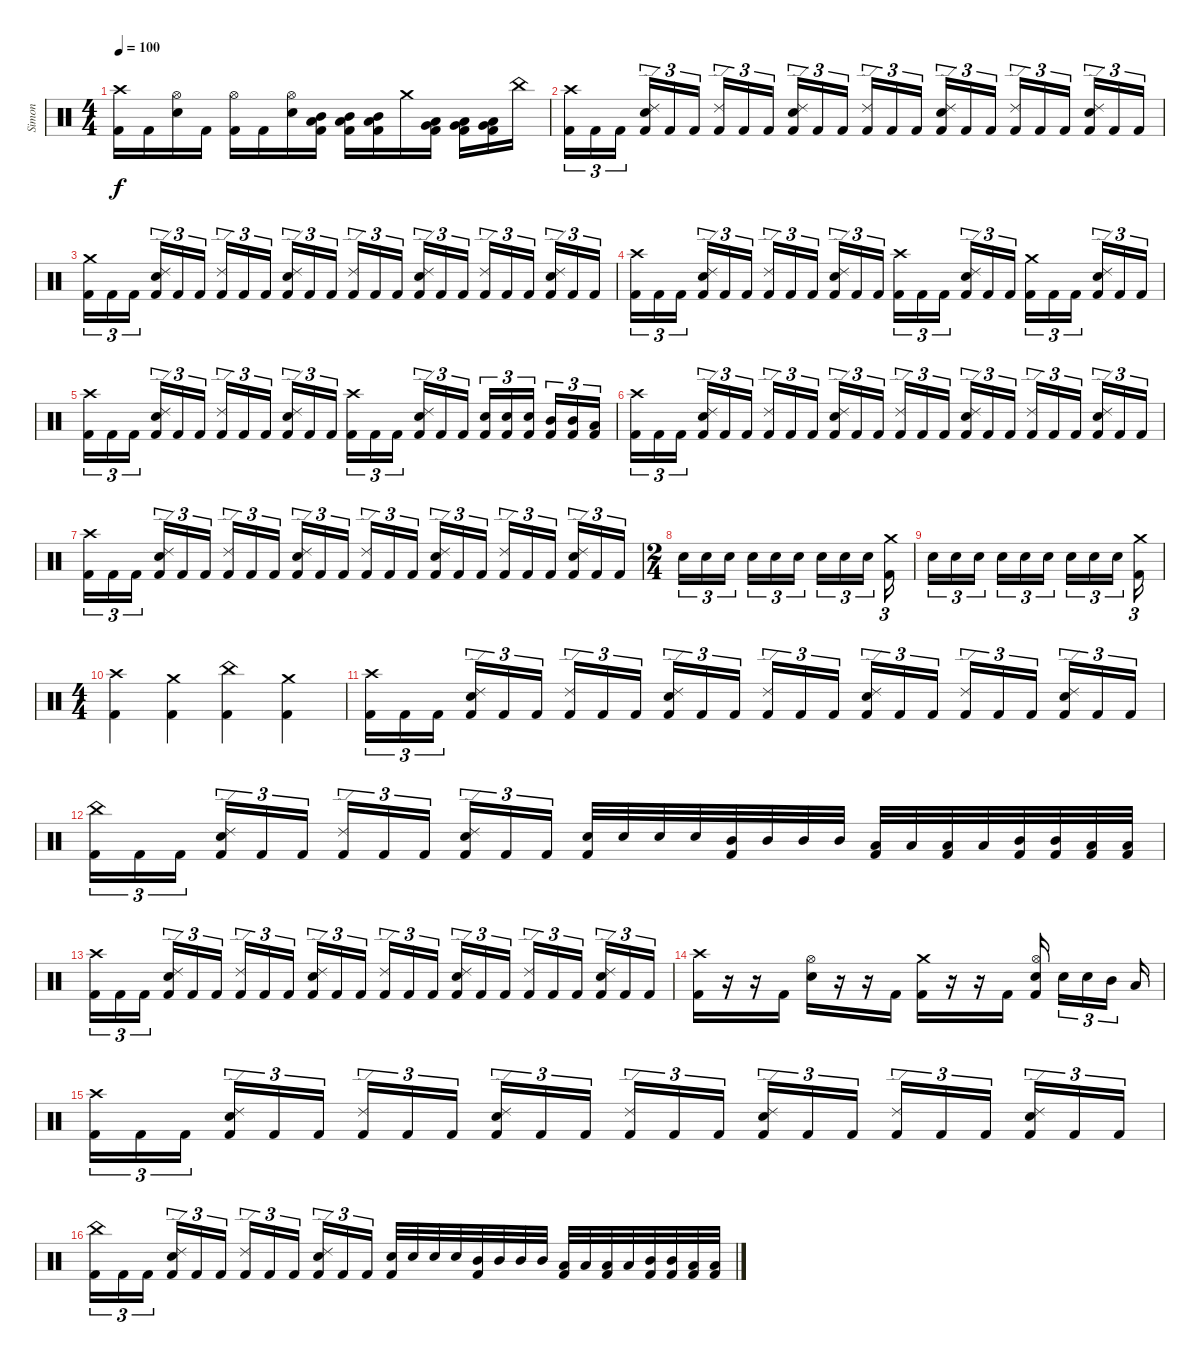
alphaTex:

\track ("Simon" "Simon") {instrument percussion}
\staff {score}
\articulation defaults
\ts (4 4)
\tempo 100
\clef neutral
\ks c
("Crash high (hit)" "Kick (hit) 2").16{dy f} "Kick (hit) 2".16 ("Hi-Hat (open)" "Electric Snare (hit)").16 "Kick (hit) 2".16 ("Hi-Hat (open)" "Kick (hit) 2").16 "Kick (hit) 2".16 ("Hi-Hat (open)" "Electric Snare (hit)").16 ("Low Tom (hit)" "Mid Tom (hit)" "Kick (hit) 2").16 ("Low Tom (hit)" "Mid Tom (hit)" "Kick (hit) 2").16 ("Low Tom (hit)" "Mid Tom (hit)" "Kick (hit) 2").16 "Crash medium (hit)".16 ("Very Low Tom (hit)" "Low Tom (hit)" "Kick (hit) 2").16 ("Very Low Tom (hit)" "Low Tom (hit)" "Kick (hit) 2").16 ("Very Low Tom (hit)" "Low Tom (hit)" "Kick (hit) 2").16 "China (hit)".16 |
("Crash high (hit)" "Kick (hit) 2").16{tu (3 2)} "Kick (hit) 2".16{tu (3 2)} "Kick (hit) 2".16{tu (3 2) beam splitsecondary} ("Ride (edge) 2" "Electric Snare (hit)" "Kick (hit) 2").16{tu (3 2)} "Kick (hit) 2".16{tu (3 2)} "Kick (hit) 2".16{tu (3 2)} ("Ride (edge) 2" "Kick (hit) 2").16{tu (3 2)} "Kick (hit) 2".16{tu (3 2)} "Kick (hit) 2".16{tu (3 2) beam splitsecondary} ("Ride (edge) 2" "Electric Snare (hit)" "Kick (hit) 2").16{tu (3 2)} "Kick (hit) 2".16{tu (3 2)} "Kick (hit) 2".16{tu (3 2)} ("Ride (edge) 2" "Kick (hit) 2").16{tu (3 2)} "Kick (hit) 2".16{tu (3 2)} "Kick (hit) 2".16{tu (3 2) beam splitsecondary} ("Ride (edge) 2" "Electric Snare (hit)" "Kick (hit) 2").16{tu (3 2)} "Kick (hit) 2".16{tu (3 2)} "Kick (hit) 2".16{tu (3 2)} ("Ride (edge) 2" "Kick (hit) 2").16{tu (3 2)} "Kick (hit) 2".16{tu (3 2)} "Kick (hit) 2".16{tu (3 2) beam splitsecondary} ("Ride (edge) 2" "Electric Snare (hit)" "Kick (hit) 2").16{tu (3 2)} "Kick (hit) 2".16{tu (3 2)} "Kick (hit) 2".16{tu (3 2)} |
("Crash medium (hit)" "Kick (hit) 2").16{tu (3 2)} "Kick (hit) 2".16{tu (3 2)} "Kick (hit) 2".16{tu (3 2) beam splitsecondary} ("Ride (edge) 2" "Electric Snare (hit)" "Kick (hit) 2").16{tu (3 2)} "Kick (hit) 2".16{tu (3 2)} "Kick (hit) 2".16{tu (3 2)} ("Ride (edge) 2" "Kick (hit) 2").16{tu (3 2)} "Kick (hit) 2".16{tu (3 2)} "Kick (hit) 2".16{tu (3 2) beam splitsecondary} ("Ride (edge) 2" "Electric Snare (hit)" "Kick (hit) 2").16{tu (3 2)} "Kick (hit) 2".16{tu (3 2)} "Kick (hit) 2".16{tu (3 2)} ("Ride (edge) 2" "Kick (hit) 2").16{tu (3 2)} "Kick (hit) 2".16{tu (3 2)} "Kick (hit) 2".16{tu (3 2) beam splitsecondary} ("Ride (edge) 2" "Electric Snare (hit)" "Kick (hit) 2").16{tu (3 2)} "Kick (hit) 2".16{tu (3 2)} "Kick (hit) 2".16{tu (3 2)} ("Ride (edge) 2" "Kick (hit) 2").16{tu (3 2)} "Kick (hit) 2".16{tu (3 2)} "Kick (hit) 2".16{tu (3 2) beam splitsecondary} ("Ride (edge) 2" "Electric Snare (hit)" "Kick (hit) 2").16{tu (3 2)} "Kick (hit) 2".16{tu (3 2)} "Kick (hit) 2".16{tu (3 2)} |
("Crash high (hit)" "Kick (hit) 2").16{tu (3 2)} "Kick (hit) 2".16{tu (3 2)} "Kick (hit) 2".16{tu (3 2) beam splitsecondary} ("Ride (edge) 2" "Electric Snare (hit)" "Kick (hit) 2").16{tu (3 2)} "Kick (hit) 2".16{tu (3 2)} "Kick (hit) 2".16{tu (3 2)} ("Ride (edge) 2" "Kick (hit) 2").16{tu (3 2)} "Kick (hit) 2".16{tu (3 2)} "Kick (hit) 2".16{tu (3 2) beam splitsecondary} ("Ride (edge) 2" "Electric Snare (hit)" "Kick (hit) 2").16{tu (3 2)} "Kick (hit) 2".16{tu (3 2)} "Kick (hit) 2".16{tu (3 2)} ("Crash high (hit)" "Kick (hit) 2").16{tu (3 2)} "Kick (hit) 2".16{tu (3 2)} "Kick (hit) 2".16{tu (3 2) beam splitsecondary} ("Ride (edge) 2" "Electric Snare (hit)" "Kick (hit) 2").16{tu (3 2)} "Kick (hit) 2".16{tu (3 2)} "Kick (hit) 2".16{tu (3 2)} ("Crash medium (hit)" "Kick (hit) 2").16{tu (3 2)} "Kick (hit) 2".16{tu (3 2)} "Kick (hit) 2".16{tu (3 2) beam splitsecondary} ("Ride (edge) 2" "Electric Snare (hit)" "Kick (hit) 2").16{tu (3 2)} "Kick (hit) 2".16{tu (3 2)} "Kick (hit) 2".16{tu (3 2)} |
("Crash high (hit)" "Kick (hit) 2").16{tu (3 2)} "Kick (hit) 2".16{tu (3 2)} "Kick (hit) 2".16{tu (3 2) beam splitsecondary} ("Ride (edge) 2" "Electric Snare (hit)" "Kick (hit) 2").16{tu (3 2)} "Kick (hit) 2".16{tu (3 2)} "Kick (hit) 2".16{tu (3 2)} ("Ride (edge) 2" "Kick (hit) 2").16{tu (3 2)} "Kick (hit) 2".16{tu (3 2)} "Kick (hit) 2".16{tu (3 2) beam splitsecondary} ("Ride (edge) 2" "Electric Snare (hit)" "Kick (hit) 2").16{tu (3 2)} "Kick (hit) 2".16{tu (3 2)} "Kick (hit) 2".16{tu (3 2)} ("Crash high (hit)" "Kick (hit) 2").16{tu (3 2)} "Kick (hit) 2".16{tu (3 2)} "Kick (hit) 2".16{tu (3 2) beam splitsecondary} ("Ride (edge) 2" "Electric Snare (hit)" "Kick (hit) 2").16{tu (3 2)} "Kick (hit) 2".16{tu (3 2)} "Kick (hit) 2".16{tu (3 2)} ("Electric Snare (hit)" "Kick (hit) 2").16{tu (3 2)} ("Electric Snare (hit)" "Kick (hit) 2").16{tu (3 2)} ("Electric Snare (hit)" "Kick (hit) 2").16{tu (3 2) beam splitsecondary} ("Mid Tom (hit)" "Kick (hit) 2").16{tu (3 2)} ("Mid Tom (hit)" "Kick (hit) 2").16{tu (3 2)} ("Low Tom (hit)" "Kick (hit) 2").16{tu (3 2)} |
("Crash high (hit)" "Kick (hit) 2").16{tu (3 2)} "Kick (hit) 2".16{tu (3 2)} "Kick (hit) 2".16{tu (3 2) beam splitsecondary} ("Ride (edge) 2" "Electric Snare (hit)" "Kick (hit) 2").16{tu (3 2)} "Kick (hit) 2".16{tu (3 2)} "Kick (hit) 2".16{tu (3 2)} ("Ride (edge) 2" "Kick (hit) 2").16{tu (3 2)} "Kick (hit) 2".16{tu (3 2)} "Kick (hit) 2".16{tu (3 2) beam splitsecondary} ("Ride (edge) 2" "Electric Snare (hit)" "Kick (hit) 2").16{tu (3 2)} "Kick (hit) 2".16{tu (3 2)} "Kick (hit) 2".16{tu (3 2)} ("Ride (edge) 2" "Kick (hit) 2").16{tu (3 2)} "Kick (hit) 2".16{tu (3 2)} "Kick (hit) 2".16{tu (3 2) beam splitsecondary} ("Ride (edge) 2" "Electric Snare (hit)" "Kick (hit) 2").16{tu (3 2)} "Kick (hit) 2".16{tu (3 2)} "Kick (hit) 2".16{tu (3 2)} ("Ride (edge) 2" "Kick (hit) 2").16{tu (3 2)} "Kick (hit) 2".16{tu (3 2)} "Kick (hit) 2".16{tu (3 2) beam splitsecondary} ("Ride (edge) 2" "Electric Snare (hit)" "Kick (hit) 2").16{tu (3 2)} "Kick (hit) 2".16{tu (3 2)} "Kick (hit) 2".16{tu (3 2)} |
("Crash high (hit)" "Kick (hit) 2").16{tu (3 2)} "Kick (hit) 2".16{tu (3 2)} "Kick (hit) 2".16{tu (3 2) beam splitsecondary} ("Ride (edge) 2" "Electric Snare (hit)" "Kick (hit) 2").16{tu (3 2)} "Kick (hit) 2".16{tu (3 2)} "Kick (hit) 2".16{tu (3 2)} ("Ride (edge) 2" "Kick (hit) 2").16{tu (3 2)} "Kick (hit) 2".16{tu (3 2)} "Kick (hit) 2".16{tu (3 2) beam splitsecondary} ("Ride (edge) 2" "Electric Snare (hit)" "Kick (hit) 2").16{tu (3 2)} "Kick (hit) 2".16{tu (3 2)} "Kick (hit) 2".16{tu (3 2)} ("Ride (edge) 2" "Kick (hit) 2").16{tu (3 2)} "Kick (hit) 2".16{tu (3 2)} "Kick (hit) 2".16{tu (3 2) beam splitsecondary} ("Ride (edge) 2" "Electric Snare (hit)" "Kick (hit) 2").16{tu (3 2)} "Kick (hit) 2".16{tu (3 2)} "Kick (hit) 2".16{tu (3 2)} ("Ride (edge) 2" "Kick (hit) 2").16{tu (3 2)} "Kick (hit) 2".16{tu (3 2)} "Kick (hit) 2".16{tu (3 2) beam splitsecondary} ("Ride (edge) 2" "Electric Snare (hit)" "Kick (hit) 2").16{tu (3 2)} "Kick (hit) 2".16{tu (3 2)} "Kick (hit) 2".16{tu (3 2)} |
\ts (2 4)
"Electric Snare (hit)".16{tu (3 2)} "Electric Snare (hit)".16{tu (3 2)} "Electric Snare (hit)".16{tu (3 2) beam splitsecondary} "Electric Snare (hit)".16{tu (3 2)} "Electric Snare (hit)".16{tu (3 2)} "Electric Snare (hit)".16{tu (3 2)} "Electric Snare (hit)".16{tu (3 2)} "Electric Snare (hit)".16{tu (3 2)} "Electric Snare (hit)".16{tu (3 2) beam splitsecondary} ("Crash medium (hit)" "Kick (hit) 2").16{tu (3 2)} |
"Electric Snare (hit)".16{tu (3 2)} "Electric Snare (hit)".16{tu (3 2)} "Electric Snare (hit)".16{tu (3 2) beam splitsecondary} "Electric Snare (hit)".16{tu (3 2)} "Electric Snare (hit)".16{tu (3 2)} "Electric Snare (hit)".16{tu (3 2)} "Electric Snare (hit)".16{tu (3 2)} "Electric Snare (hit)".16{tu (3 2)} "Electric Snare (hit)".16{tu (3 2) beam splitsecondary} ("Crash medium (hit)" "Kick (hit) 2").16{tu (3 2)} |
\ts (4 4)
("Crash high (hit)" "Kick (hit) 2").4 ("Crash medium (hit)" "Kick (hit) 2").4 ("China (hit)" "Kick (hit) 2").4 ("Crash medium (hit)" "Kick (hit) 2").4 |
("Crash high (hit)" "Kick (hit) 2").16{tu (3 2)} "Kick (hit) 2".16{tu (3 2)} "Kick (hit) 2".16{tu (3 2) beam splitsecondary} ("Ride (edge) 2" "Electric Snare (hit)" "Kick (hit) 2").16{tu (3 2)} "Kick (hit) 2".16{tu (3 2)} "Kick (hit) 2".16{tu (3 2)} ("Ride (edge) 2" "Kick (hit) 2").16{tu (3 2)} "Kick (hit) 2".16{tu (3 2)} "Kick (hit) 2".16{tu (3 2) beam splitsecondary} ("Ride (edge) 2" "Electric Snare (hit)" "Kick (hit) 2").16{tu (3 2)} "Kick (hit) 2".16{tu (3 2)} "Kick (hit) 2".16{tu (3 2)} ("Ride (edge) 2" "Kick (hit) 2").16{tu (3 2)} "Kick (hit) 2".16{tu (3 2)} "Kick (hit) 2".16{tu (3 2) beam splitsecondary} ("Ride (edge) 2" "Electric Snare (hit)" "Kick (hit) 2").16{tu (3 2)} "Kick (hit) 2".16{tu (3 2)} "Kick (hit) 2".16{tu (3 2)} ("Ride (edge) 2" "Kick (hit) 2").16{tu (3 2)} "Kick (hit) 2".16{tu (3 2)} "Kick (hit) 2".16{tu (3 2) beam splitsecondary} ("Ride (edge) 2" "Electric Snare (hit)" "Kick (hit) 2").16{tu (3 2)} "Kick (hit) 2".16{tu (3 2)} "Kick (hit) 2".16{tu (3 2)} |
("China (hit)" "Kick (hit) 2").16{tu (3 2)} "Kick (hit) 2".16{tu (3 2)} "Kick (hit) 2".16{tu (3 2) beam splitsecondary} ("Ride (edge) 2" "Electric Snare (hit)" "Kick (hit) 2").16{tu (3 2)} "Kick (hit) 2".16{tu (3 2)} "Kick (hit) 2".16{tu (3 2)} ("Ride (edge) 2" "Kick (hit) 2").16{tu (3 2)} "Kick (hit) 2".16{tu (3 2)} "Kick (hit) 2".16{tu (3 2) beam splitsecondary} ("Ride (edge) 2" "Electric Snare (hit)" "Kick (hit) 2").16{tu (3 2)} "Kick (hit) 2".16{tu (3 2)} "Kick (hit) 2".16{tu (3 2)} ("Electric Snare (hit)" "Kick (hit) 2").32 "Electric Snare (hit)".32 "Electric Snare (hit)".32 "Electric Snare (hit)".32 ("Mid Tom (hit)" "Kick (hit) 2").32 "Mid Tom (hit)".32 "Mid Tom (hit)".32 "Mid Tom (hit)".32 ("Low Tom (hit)" "Kick (hit) 2").32 "Low Tom (hit)".32 ("Low Tom (hit)" "Kick (hit) 2").32 "Low Tom (hit)".32 ("Mid Tom (hit)" "Kick (hit) 2").32 ("Mid Tom (hit)" "Kick (hit) 2").32 ("Low Tom (hit)" "Kick (hit) 2").32 ("Low Tom (hit)" "Kick (hit) 2").32 |
("Crash high (hit)" "Kick (hit) 2").16{tu (3 2)} "Kick (hit) 2".16{tu (3 2)} "Kick (hit) 2".16{tu (3 2) beam splitsecondary} ("Ride (edge) 2" "Electric Snare (hit)" "Kick (hit) 2").16{tu (3 2)} "Kick (hit) 2".16{tu (3 2)} "Kick (hit) 2".16{tu (3 2)} ("Ride (edge) 2" "Kick (hit) 2").16{tu (3 2)} "Kick (hit) 2".16{tu (3 2)} "Kick (hit) 2".16{tu (3 2) beam splitsecondary} ("Ride (edge) 2" "Electric Snare (hit)" "Kick (hit) 2").16{tu (3 2)} "Kick (hit) 2".16{tu (3 2)} "Kick (hit) 2".16{tu (3 2)} ("Ride (edge) 2" "Kick (hit) 2").16{tu (3 2)} "Kick (hit) 2".16{tu (3 2)} "Kick (hit) 2".16{tu (3 2) beam splitsecondary} ("Ride (edge) 2" "Electric Snare (hit)" "Kick (hit) 2").16{tu (3 2)} "Kick (hit) 2".16{tu (3 2)} "Kick (hit) 2".16{tu (3 2)} ("Ride (edge) 2" "Kick (hit) 2").16{tu (3 2)} "Kick (hit) 2".16{tu (3 2)} "Kick (hit) 2".16{tu (3 2) beam splitsecondary} ("Ride (edge) 2" "Electric Snare (hit)" "Kick (hit) 2").16{tu (3 2)} "Kick (hit) 2".16{tu (3 2)} "Kick (hit) 2".16{tu (3 2)} |
("Crash high (hit)" "Kick (hit) 2").16 r.16 r.16 "Kick (hit) 2".16 ("Hi-Hat (open)" "Electric Snare (hit)").16 r.16 r.16 "Kick (hit) 2".16 ("Crash medium (hit)" "Kick (hit) 2").16 r.16 r.16 "Kick (hit) 2".16 ("Hi-Hat (open)" "Electric Snare (hit)" "Kick (hit) 2").16{beam splitsecondary} "Electric Snare (hit)".16{tu (3 2)} "Electric Snare (hit)".16{tu (3 2)} "Mid Tom (hit)".16{tu (3 2) beam splitsecondary} "Low Tom (hit)".16 |
("Crash high (hit)" "Kick (hit) 2").16{tu (3 2)} "Kick (hit) 2".16{tu (3 2)} "Kick (hit) 2".16{tu (3 2) beam splitsecondary} ("Ride (edge) 2" "Electric Snare (hit)" "Kick (hit) 2").16{tu (3 2)} "Kick (hit) 2".16{tu (3 2)} "Kick (hit) 2".16{tu (3 2)} ("Ride (edge) 2" "Kick (hit) 2").16{tu (3 2)} "Kick (hit) 2".16{tu (3 2)} "Kick (hit) 2".16{tu (3 2) beam splitsecondary} ("Ride (edge) 2" "Electric Snare (hit)" "Kick (hit) 2").16{tu (3 2)} "Kick (hit) 2".16{tu (3 2)} "Kick (hit) 2".16{tu (3 2)} ("Ride (edge) 2" "Kick (hit) 2").16{tu (3 2)} "Kick (hit) 2".16{tu (3 2)} "Kick (hit) 2".16{tu (3 2) beam splitsecondary} ("Ride (edge) 2" "Electric Snare (hit)" "Kick (hit) 2").16{tu (3 2)} "Kick (hit) 2".16{tu (3 2)} "Kick (hit) 2".16{tu (3 2)} ("Ride (edge) 2" "Kick (hit) 2").16{tu (3 2)} "Kick (hit) 2".16{tu (3 2)} "Kick (hit) 2".16{tu (3 2) beam splitsecondary} ("Ride (edge) 2" "Electric Snare (hit)" "Kick (hit) 2").16{tu (3 2)} "Kick (hit) 2".16{tu (3 2)} "Kick (hit) 2".16{tu (3 2)} |
("China (hit)" "Kick (hit) 2").16{tu (3 2)} "Kick (hit) 2".16{tu (3 2)} "Kick (hit) 2".16{tu (3 2) beam splitsecondary} ("Ride (edge) 2" "Electric Snare (hit)" "Kick (hit) 2").16{tu (3 2)} "Kick (hit) 2".16{tu (3 2)} "Kick (hit) 2".16{tu (3 2)} ("Ride (edge) 2" "Kick (hit) 2").16{tu (3 2)} "Kick (hit) 2".16{tu (3 2)} "Kick (hit) 2".16{tu (3 2) beam splitsecondary} ("Ride (edge) 2" "Electric Snare (hit)" "Kick (hit) 2").16{tu (3 2)} "Kick (hit) 2".16{tu (3 2)} "Kick (hit) 2".16{tu (3 2)} ("Electric Snare (hit)" "Kick (hit) 2").32 "Electric Snare (hit)".32 "Electric Snare (hit)".32 "Electric Snare (hit)".32 ("Mid Tom (hit)" "Kick (hit) 2").32 "Mid Tom (hit)".32 "Mid Tom (hit)".32 "Mid Tom (hit)".32 ("Low Tom (hit)" "Kick (hit) 2").32 "Low Tom (hit)".32 ("Low Tom (hit)" "Kick (hit) 2").32 "Low Tom (hit)".32 ("Mid Tom (hit)" "Kick (hit) 2").32 ("Mid Tom (hit)" "Kick (hit) 2").32 ("Low Tom (hit)" "Kick (hit) 2").32 ("Low Tom (hit)" "Kick (hit) 2").32
